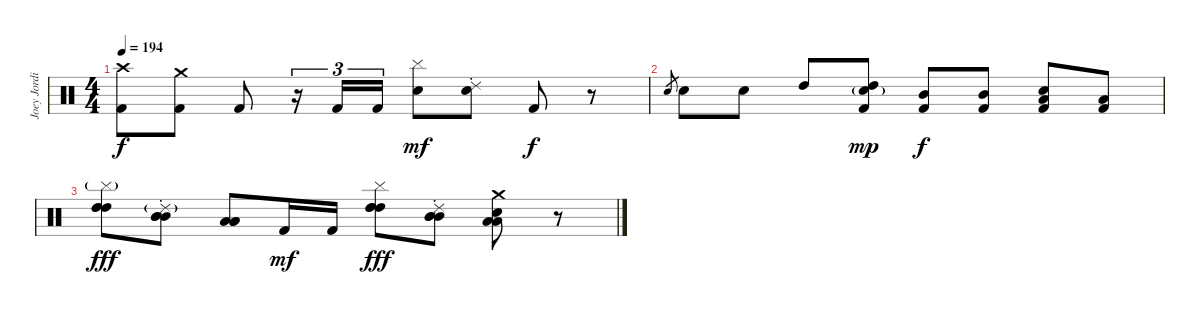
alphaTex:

\track ("Joey Jordison" "Joey Jordi") {instrument percussion}
\staff {score}
\articulation defaults
\ts (4 4)
\tempo 194
\clef neutral
\ks c
("Crash high (hit)" "Kick (hit) 2").8{dy f} ("Crash medium (hit)" "Kick (hit) 2").8 "Kick (hit) 2".8 r.16{tu (3 2)} "Kick (hit) 2".16{tu (3 2)} "Kick (hit) 2".16{tu (3 2)} ("Cymbal (hit)" "Snare (hit) 2").8{dy mf} ("Ride (choke) 2" "Snare (hit) 2").8 "Kick (hit) 2".8{dy f} r.8 |
"Snare (hit) 2".8{gr} "Snare (hit) 2".8 "Snare (hit) 2".8 "High Tom (hit)".8 ("Snare (hit) 2"{g} "High Tom (hit)" "Kick (hit) 2").8{dy mp} ("Mid Tom (hit)" "Kick (hit) 2").8{dy f} ("Mid Tom (hit)" "Kick (hit) 2").8 ("Snare (hit) 2" "Low Tom (hit)" "Kick (hit) 2").8 ("Low Tom (hit)" "Kick (hit) 2").8 |
("Cymbal (hit)"{g} "High Tom (hit)" "High Tom (hit)" "High Tom (hit)").8{dy fff} ("Ride (choke) 2"{g} "Mid Tom (hit)" "Mid Tom (hit)" "Mid Tom (hit)").8 ("Low Tom (hit)" "Low Tom (hit)" "Low Tom (hit)").8 "Kick (hit) 2".16{dy mf} "Kick (hit) 2".16 ("Cymbal (hit)" "High Tom (hit)" "High Tom (hit)" "High Tom (hit)").8{dy fff} ("Ride (choke) 2" "Mid Tom (hit)" "Mid Tom (hit)" "Mid Tom (hit)").8 ("Crash medium (hit)" "Snare (hit) 2" "Low Tom (hit)" "Low Tom (hit)").8 r.8{volume 0}
